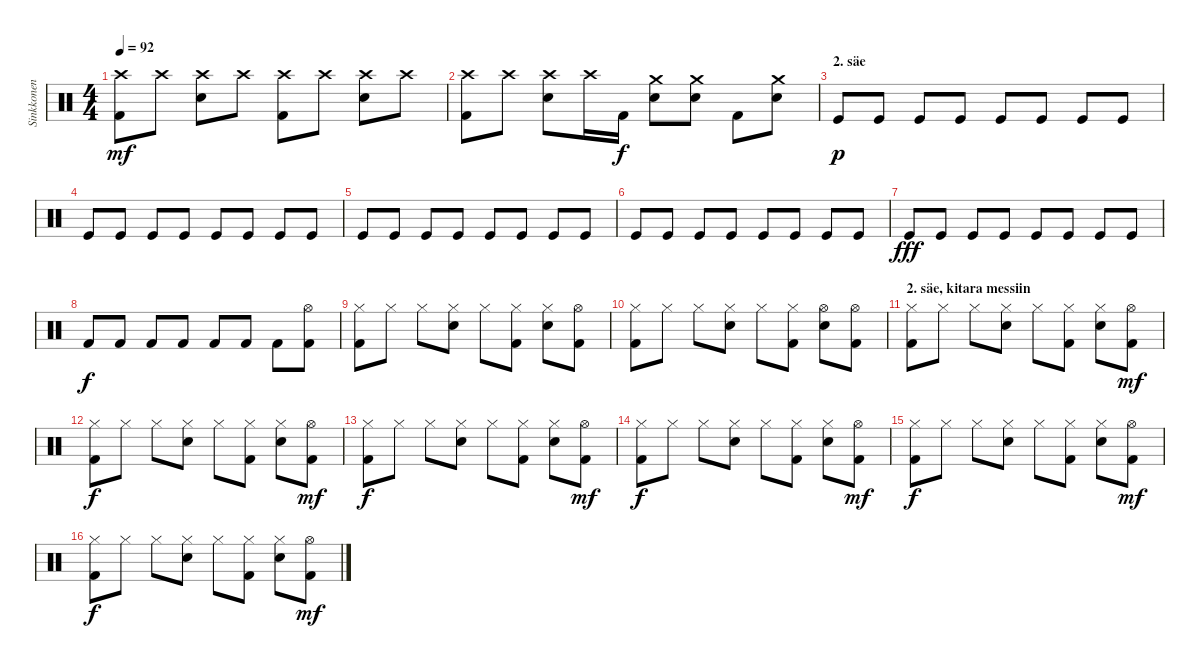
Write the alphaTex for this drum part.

\track ("Sinkkonen" "Sinkkonen") {instrument percussion}
\staff {score}
\articulation defaults
\ts (4 4)
\tempo 92
\clef neutral
\ks c
("Kick (hit) 2" "Crash high (hit)").8{dy mf} "Crash high (hit)".8 ("Crash high (hit)" "Snare (hit) 2").8 "Crash high (hit)".8 ("Kick (hit) 2" "Crash high (hit)").8 "Crash high (hit)".8 ("Crash high (hit)" "Snare (hit) 2").8 "Crash high (hit)".8 |
("Kick (hit) 2" "Crash high (hit)").8 "Crash high (hit)".8 ("Crash high (hit)" "Snare (hit) 2").8 "Crash high (hit)".16 "Kick (hit) 2".16{dy f} ("Crash medium (hit)" "Snare (hit) 2").8 ("Crash medium (hit)" "Snare (hit) 2").8 "Kick (hit) 2".8 ("Crash medium (hit)" "Snare (hit) 2").8 |
\section ("" "2. säe")
"Kick (hit)".8{dy p} "Kick (hit)".8 "Kick (hit)".8 "Kick (hit)".8 "Kick (hit)".8 "Kick (hit)".8 "Kick (hit)".8 "Kick (hit)".8 |
"Kick (hit)".8 "Kick (hit)".8 "Kick (hit)".8 "Kick (hit)".8 "Kick (hit)".8 "Kick (hit)".8 "Kick (hit)".8 "Kick (hit)".8 |
"Kick (hit)".8 "Kick (hit)".8 "Kick (hit)".8 "Kick (hit)".8 "Kick (hit)".8 "Kick (hit)".8 "Kick (hit)".8 "Kick (hit)".8 |
"Kick (hit)".8 "Kick (hit)".8 "Kick (hit)".8 "Kick (hit)".8 "Kick (hit)".8 "Kick (hit)".8 "Kick (hit)".8 "Kick (hit)".8 |
"Kick (hit)".8{dy fff volume 4} "Kick (hit)".8 "Kick (hit)".8 "Kick (hit)".8 "Kick (hit)".8 "Kick (hit)".8 "Kick (hit)".8 "Kick (hit)".8 |
"Kick (hit) 2".8{dy f volume 10} "Kick (hit) 2".8 "Kick (hit) 2".8 "Kick (hit) 2".8 "Kick (hit) 2".8 "Kick (hit) 2".8 "Kick (hit) 2".8 ("Kick (hit) 2" "Hi-Hat (open)").8 |
("Kick (hit) 2" "Hi-Hat (closed)").8 "Hi-Hat (closed)".8 "Hi-Hat (closed)".8 ("Hi-Hat (closed)" "Snare (hit) 2").8 "Hi-Hat (closed)".8 ("Kick (hit) 2" "Hi-Hat (closed)").8 ("Hi-Hat (closed)" "Snare (hit) 2").8 ("Kick (hit) 2" "Hi-Hat (open)").8 |
("Kick (hit) 2" "Hi-Hat (closed)").8{volume 13} "Hi-Hat (closed)".8 "Hi-Hat (closed)".8 ("Hi-Hat (closed)" "Snare (hit) 2").8 "Hi-Hat (closed)".8 ("Kick (hit) 2" "Hi-Hat (closed)").8 ("Hi-Hat (open)" "Snare (hit) 2").8 ("Kick (hit) 2" "Hi-Hat (open)").8 |
\section ("" "2. säe, kitara messiin")
("Kick (hit) 2" "Hi-Hat (closed)").8 "Hi-Hat (closed)".8 "Hi-Hat (closed)".8 ("Hi-Hat (closed)" "Snare (hit) 2").8 "Hi-Hat (closed)".8 ("Kick (hit) 2" "Hi-Hat (closed)").8 ("Hi-Hat (closed)" "Snare (hit) 2").8 ("Kick (hit) 2" "Hi-Hat (open)").8{dy mf} |
("Kick (hit) 2" "Hi-Hat (closed)").8{dy f} "Hi-Hat (closed)".8 "Hi-Hat (closed)".8 ("Hi-Hat (closed)" "Snare (hit) 2").8 "Hi-Hat (closed)".8 ("Kick (hit) 2" "Hi-Hat (closed)").8 ("Hi-Hat (closed)" "Snare (hit) 2").8 ("Kick (hit) 2" "Hi-Hat (open)").8{dy mf} |
("Kick (hit) 2" "Hi-Hat (closed)").8{dy f} "Hi-Hat (closed)".8 "Hi-Hat (closed)".8 ("Hi-Hat (closed)" "Snare (hit) 2").8 "Hi-Hat (closed)".8 ("Kick (hit) 2" "Hi-Hat (closed)").8 ("Hi-Hat (closed)" "Snare (hit) 2").8 ("Kick (hit) 2" "Hi-Hat (open)").8{dy mf} |
("Kick (hit) 2" "Hi-Hat (closed)").8{dy f} "Hi-Hat (closed)".8 "Hi-Hat (closed)".8 ("Hi-Hat (closed)" "Snare (hit) 2").8 "Hi-Hat (closed)".8 ("Kick (hit) 2" "Hi-Hat (closed)").8 ("Hi-Hat (closed)" "Snare (hit) 2").8 ("Kick (hit) 2" "Hi-Hat (open)").8{dy mf} |
("Kick (hit) 2" "Hi-Hat (closed)").8{dy f} "Hi-Hat (closed)".8 "Hi-Hat (closed)".8 ("Hi-Hat (closed)" "Snare (hit) 2").8 "Hi-Hat (closed)".8 ("Kick (hit) 2" "Hi-Hat (closed)").8 ("Hi-Hat (closed)" "Snare (hit) 2").8 ("Kick (hit) 2" "Hi-Hat (open)").8{dy mf} |
("Kick (hit) 2" "Hi-Hat (closed)").8{dy f} "Hi-Hat (closed)".8 "Hi-Hat (closed)".8 ("Hi-Hat (closed)" "Snare (hit) 2").8 "Hi-Hat (closed)".8 ("Kick (hit) 2" "Hi-Hat (closed)").8 ("Hi-Hat (closed)" "Snare (hit) 2").8 ("Kick (hit) 2" "Hi-Hat (open)").8{dy mf}
